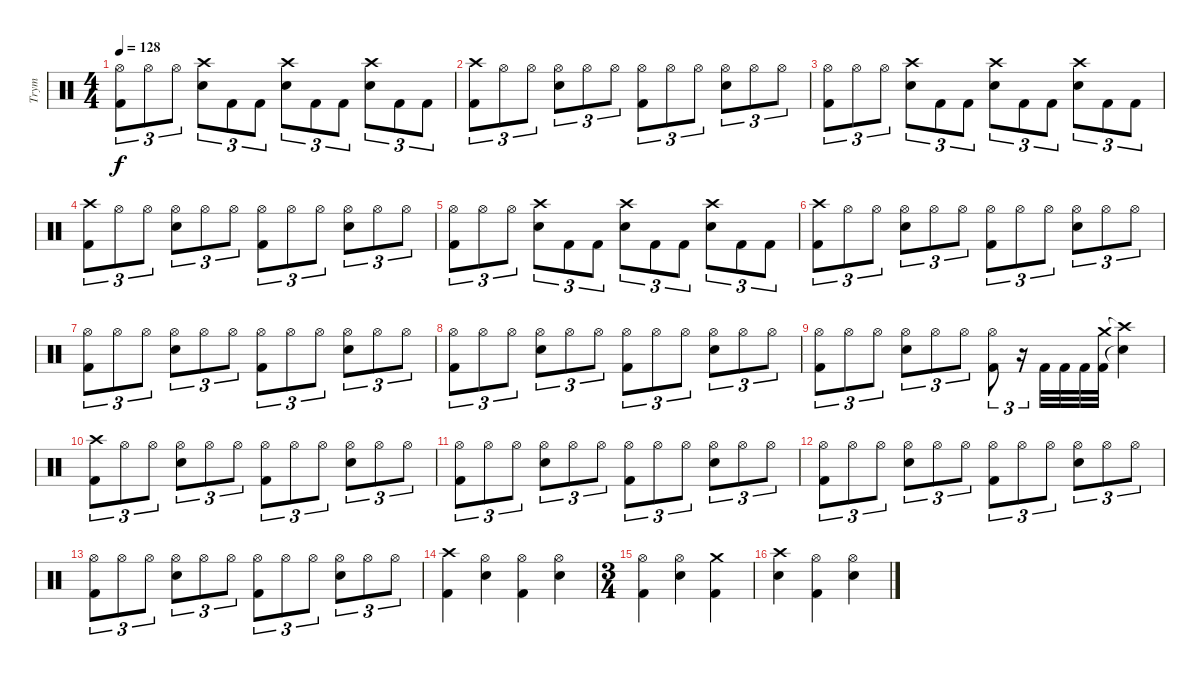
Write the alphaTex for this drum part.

\track ("Trym" "Trym") {instrument percussion}
\staff {score}
\articulation defaults
\ts (4 4)
\tempo 128
\clef neutral
\ks c
("Hi-Hat (open)" "Kick (hit) 2").8{tu (3 2) dy f} "Hi-Hat (open)".8{tu (3 2)} "Hi-Hat (open)".8{tu (3 2)} ("Crash high (hit)" "Electric Snare (hit)").8{tu (3 2)} "Kick (hit) 2".8{tu (3 2)} "Kick (hit) 2".8{tu (3 2)} ("Crash high (hit)" "Electric Snare (hit)").8{tu (3 2)} "Kick (hit) 2".8{tu (3 2)} "Kick (hit) 2".8{tu (3 2)} ("Crash high (hit)" "Electric Snare (hit)").8{tu (3 2)} "Kick (hit) 2".8{tu (3 2)} "Kick (hit) 2".8{tu (3 2)} |
("Crash high (hit)" "Kick (hit) 2").8{tu (3 2)} "Hi-Hat (open)".8{tu (3 2)} "Hi-Hat (open)".8{tu (3 2)} ("Hi-Hat (open)" "Electric Snare (hit)").8{tu (3 2)} "Hi-Hat (open)".8{tu (3 2)} "Hi-Hat (open)".8{tu (3 2)} ("Hi-Hat (open)" "Kick (hit) 2").8{tu (3 2)} "Hi-Hat (open)".8{tu (3 2)} "Hi-Hat (open)".8{tu (3 2)} ("Hi-Hat (open)" "Electric Snare (hit)").8{tu (3 2)} "Hi-Hat (open)".8{tu (3 2)} "Hi-Hat (open)".8{tu (3 2)} |
("Hi-Hat (open)" "Kick (hit) 2").8{tu (3 2)} "Hi-Hat (open)".8{tu (3 2)} "Hi-Hat (open)".8{tu (3 2)} ("Crash high (hit)" "Electric Snare (hit)").8{tu (3 2)} "Kick (hit) 2".8{tu (3 2)} "Kick (hit) 2".8{tu (3 2)} ("Crash high (hit)" "Electric Snare (hit)").8{tu (3 2)} "Kick (hit) 2".8{tu (3 2)} "Kick (hit) 2".8{tu (3 2)} ("Crash high (hit)" "Electric Snare (hit)").8{tu (3 2)} "Kick (hit) 2".8{tu (3 2)} "Kick (hit) 2".8{tu (3 2)} |
("Crash high (hit)" "Kick (hit) 2").8{tu (3 2)} "Hi-Hat (open)".8{tu (3 2)} "Hi-Hat (open)".8{tu (3 2)} ("Hi-Hat (open)" "Electric Snare (hit)").8{tu (3 2)} "Hi-Hat (open)".8{tu (3 2)} "Hi-Hat (open)".8{tu (3 2)} ("Hi-Hat (open)" "Kick (hit) 2").8{tu (3 2)} "Hi-Hat (open)".8{tu (3 2)} "Hi-Hat (open)".8{tu (3 2)} ("Hi-Hat (open)" "Electric Snare (hit)").8{tu (3 2)} "Hi-Hat (open)".8{tu (3 2)} "Hi-Hat (open)".8{tu (3 2)} |
("Hi-Hat (open)" "Kick (hit) 2").8{tu (3 2)} "Hi-Hat (open)".8{tu (3 2)} "Hi-Hat (open)".8{tu (3 2)} ("Crash high (hit)" "Electric Snare (hit)").8{tu (3 2)} "Kick (hit) 2".8{tu (3 2)} "Kick (hit) 2".8{tu (3 2)} ("Crash high (hit)" "Electric Snare (hit)").8{tu (3 2)} "Kick (hit) 2".8{tu (3 2)} "Kick (hit) 2".8{tu (3 2)} ("Crash high (hit)" "Electric Snare (hit)").8{tu (3 2)} "Kick (hit) 2".8{tu (3 2)} "Kick (hit) 2".8{tu (3 2)} |
("Crash high (hit)" "Kick (hit) 2").8{tu (3 2)} "Hi-Hat (open)".8{tu (3 2)} "Hi-Hat (open)".8{tu (3 2)} ("Hi-Hat (open)" "Electric Snare (hit)").8{tu (3 2)} "Hi-Hat (open)".8{tu (3 2)} "Hi-Hat (open)".8{tu (3 2)} ("Hi-Hat (open)" "Kick (hit) 2").8{tu (3 2)} "Hi-Hat (open)".8{tu (3 2)} "Hi-Hat (open)".8{tu (3 2)} ("Hi-Hat (open)" "Electric Snare (hit)").8{tu (3 2)} "Hi-Hat (open)".8{tu (3 2)} "Hi-Hat (open)".8{tu (3 2)} |
("Hi-Hat (open)" "Kick (hit) 2").8{tu (3 2)} "Hi-Hat (open)".8{tu (3 2)} "Hi-Hat (open)".8{tu (3 2)} ("Hi-Hat (open)" "Electric Snare (hit)").8{tu (3 2)} "Hi-Hat (open)".8{tu (3 2)} "Hi-Hat (open)".8{tu (3 2)} ("Hi-Hat (open)" "Kick (hit) 2").8{tu (3 2)} "Hi-Hat (open)".8{tu (3 2)} "Hi-Hat (open)".8{tu (3 2)} ("Hi-Hat (open)" "Electric Snare (hit)").8{tu (3 2)} "Hi-Hat (open)".8{tu (3 2)} "Hi-Hat (open)".8{tu (3 2)} |
("Hi-Hat (open)" "Kick (hit) 2").8{tu (3 2)} "Hi-Hat (open)".8{tu (3 2)} "Hi-Hat (open)".8{tu (3 2)} ("Hi-Hat (open)" "Electric Snare (hit)").8{tu (3 2)} "Hi-Hat (open)".8{tu (3 2)} "Hi-Hat (open)".8{tu (3 2)} ("Hi-Hat (open)" "Kick (hit) 2").8{tu (3 2)} "Hi-Hat (open)".8{tu (3 2)} "Hi-Hat (open)".8{tu (3 2)} ("Hi-Hat (open)" "Electric Snare (hit)").8{tu (3 2)} "Hi-Hat (open)".8{tu (3 2)} "Hi-Hat (open)".8{tu (3 2)} |
("Hi-Hat (open)" "Kick (hit) 2").8{tu (3 2)} "Hi-Hat (open)".8{tu (3 2)} "Hi-Hat (open)".8{tu (3 2)} ("Hi-Hat (open)" "Electric Snare (hit)").8{tu (3 2)} "Hi-Hat (open)".8{tu (3 2)} "Hi-Hat (open)".8{tu (3 2)} ("Hi-Hat (open)" "Kick (hit) 2").8{tu (3 2)} r.16{tu (3 2)} "Kick (hit) 2".32 "Kick (hit) 2".32 "Kick (hit) 2".32 ("Crash medium (hit)" "Kick (hit) 2").32 ("Crash high (hit)"{t} "Snare (hit)"{t}).4 |
("Crash high (hit)" "Kick (hit) 2").8{tu (3 2)} "Hi-Hat (open)".8{tu (3 2)} "Hi-Hat (open)".8{tu (3 2)} ("Hi-Hat (open)" "Electric Snare (hit)").8{tu (3 2)} "Hi-Hat (open)".8{tu (3 2)} "Hi-Hat (open)".8{tu (3 2)} ("Hi-Hat (open)" "Kick (hit) 2").8{tu (3 2)} "Hi-Hat (open)".8{tu (3 2)} "Hi-Hat (open)".8{tu (3 2)} ("Hi-Hat (open)" "Electric Snare (hit)").8{tu (3 2)} "Hi-Hat (open)".8{tu (3 2)} "Hi-Hat (open)".8{tu (3 2)} |
("Hi-Hat (open)" "Kick (hit) 2").8{tu (3 2)} "Hi-Hat (open)".8{tu (3 2)} "Hi-Hat (open)".8{tu (3 2)} ("Hi-Hat (open)" "Electric Snare (hit)").8{tu (3 2)} "Hi-Hat (open)".8{tu (3 2)} "Hi-Hat (open)".8{tu (3 2)} ("Hi-Hat (open)" "Kick (hit) 2").8{tu (3 2)} "Hi-Hat (open)".8{tu (3 2)} "Hi-Hat (open)".8{tu (3 2)} ("Hi-Hat (open)" "Electric Snare (hit)").8{tu (3 2)} "Hi-Hat (open)".8{tu (3 2)} "Hi-Hat (open)".8{tu (3 2)} |
("Hi-Hat (open)" "Kick (hit) 2").8{tu (3 2)} "Hi-Hat (open)".8{tu (3 2)} "Hi-Hat (open)".8{tu (3 2)} ("Hi-Hat (open)" "Electric Snare (hit)").8{tu (3 2)} "Hi-Hat (open)".8{tu (3 2)} "Hi-Hat (open)".8{tu (3 2)} ("Hi-Hat (open)" "Kick (hit) 2").8{tu (3 2)} "Hi-Hat (open)".8{tu (3 2)} "Hi-Hat (open)".8{tu (3 2)} ("Hi-Hat (open)" "Electric Snare (hit)").8{tu (3 2)} "Hi-Hat (open)".8{tu (3 2)} "Hi-Hat (open)".8{tu (3 2)} |
("Hi-Hat (open)" "Kick (hit) 2").8{tu (3 2)} "Hi-Hat (open)".8{tu (3 2)} "Hi-Hat (open)".8{tu (3 2)} ("Hi-Hat (open)" "Electric Snare (hit)").8{tu (3 2)} "Hi-Hat (open)".8{tu (3 2)} "Hi-Hat (open)".8{tu (3 2)} ("Hi-Hat (open)" "Kick (hit) 2").8{tu (3 2)} "Hi-Hat (open)".8{tu (3 2)} "Hi-Hat (open)".8{tu (3 2)} ("Hi-Hat (open)" "Electric Snare (hit)").8{tu (3 2)} "Hi-Hat (open)".8{tu (3 2)} "Hi-Hat (open)".8{tu (3 2)} |
("Crash high (hit)" "Kick (hit) 2").4 ("Hi-Hat (open)" "Electric Snare (hit)").4 ("Hi-Hat (open)" "Kick (hit) 2").4 ("Hi-Hat (open)" "Electric Snare (hit)").4 |
\ts (3 4)
("Hi-Hat (open)" "Kick (hit) 2").4 ("Hi-Hat (open)" "Electric Snare (hit)").4 ("Crash medium (hit)" "Kick (hit) 2").4 |
("Crash high (hit)" "Electric Snare (hit)").4 ("Hi-Hat (open)" "Kick (hit) 2").4 ("Hi-Hat (open)" "Electric Snare (hit)").4
